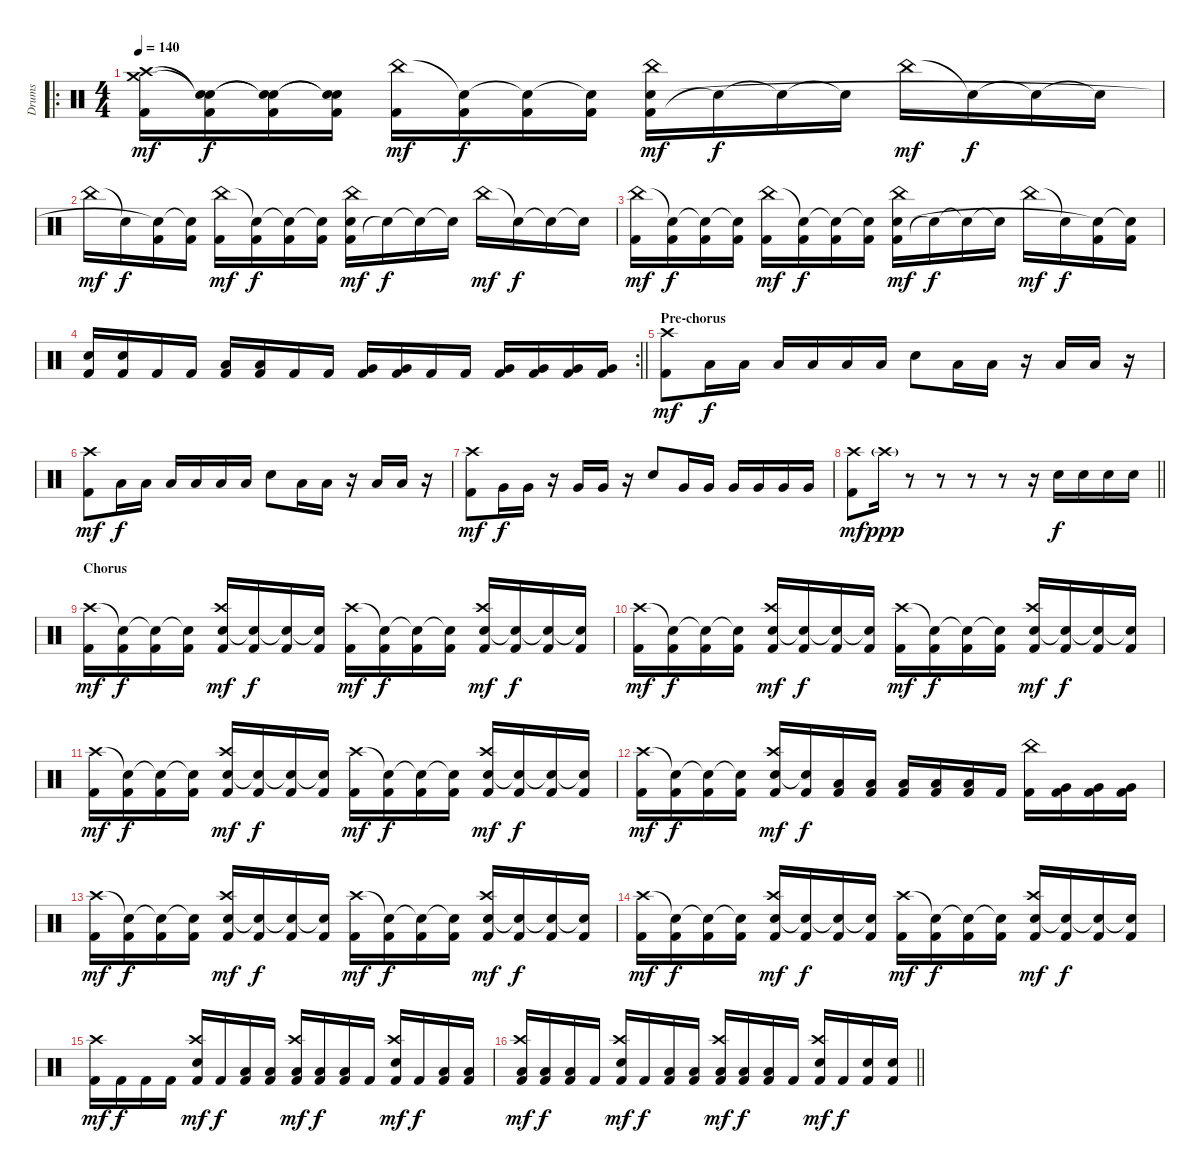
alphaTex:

\track ("Drums" "Drums") {instrument percussion}
\staff {score}
\articulation defaults
\ro
\ts (4 4)
\tempo 140
\clef neutral
\ks c
("Kick (hit) 2" "Crash high (hit)" "Crash medium (hit)").16{dy mf} ("Kick (hit) 2" "Snare (hit)"{t} "Snare (hit)"{t}).16{dy f} ("Kick (hit) 2" "Snare (hit)"{t} "Snare (hit)"{t}).16 ("Kick (hit) 2" "Snare (hit)"{t} "Snare (hit)"{t}).16 ("Kick (hit) 2" "China (hit)").16{dy mf} ("Kick (hit) 2" "Snare (hit)"{t}).16{dy f} ("Kick (hit) 2" "Snare (hit)"{t}).16 ("Kick (hit) 2" "Snare (hit)"{t}).16 ("Kick (hit) 2" "Snare (hit) 2" "China (hit)").16{dy mf} "Snare (hit)"{t}.16{dy f} "Snare (hit)"{t}.16 "Snare (hit)"{t}.16 "China (hit)".16{dy mf} "Snare (hit)"{t}.16{dy f} "Snare (hit)"{t}.16 "Snare (hit)"{t}.16 |
"China (hit)".16{dy mf} "Snare (hit)"{t}.16{dy f} ("Kick (hit) 2" "Snare (hit)"{t}).16 ("Kick (hit) 2" "Snare (hit)"{t}).16 ("Kick (hit) 2" "China (hit)").16{dy mf} ("Kick (hit) 2" "Snare (hit)"{t}).16{dy f} ("Kick (hit) 2" "Snare (hit)"{t}).16 ("Kick (hit) 2" "Snare (hit)"{t}).16 ("Kick (hit) 2" "Snare (hit) 2" "China (hit)").16{dy mf} "Snare (hit)"{t}.16{dy f} "Snare (hit)"{t}.16 "Snare (hit)"{t}.16 "China (hit)".16{dy mf} "Snare (hit)"{t}.16{dy f} "Snare (hit)"{t}.16 "Snare (hit)"{t}.16 |
("Kick (hit) 2" "China (hit)").16{dy mf} ("Kick (hit) 2" "Snare (hit)"{t}).16{dy f} ("Kick (hit) 2" "Snare (hit)"{t}).16 ("Kick (hit) 2" "Snare (hit)"{t}).16 ("Kick (hit) 2" "China (hit)").16{dy mf} ("Kick (hit) 2" "Snare (hit)"{t}).16{dy f} ("Kick (hit) 2" "Snare (hit)"{t}).16 ("Kick (hit) 2" "Snare (hit)"{t}).16 ("Kick (hit) 2" "Snare (hit) 2" "China (hit)").16{dy mf} "Snare (hit)"{t}.16{dy f} "Snare (hit)"{t}.16 "Snare (hit)"{t}.16 "China (hit)".16{dy mf} "Snare (hit)"{t}.16{dy f} ("Kick (hit) 2" "Snare (hit)"{t}).16 ("Kick (hit) 2" "Snare (hit)"{t}).16 |
\rc 2
\barLineRight lightlight
("Kick (hit) 2" "Snare (hit) 2").16 ("Kick (hit) 2" "Snare (hit) 2").16 "Kick (hit) 2".16 "Kick (hit) 2".16 ("Kick (hit) 2" "Low Tom (hit)").16 ("Kick (hit) 2" "Low Tom (hit)").16 "Kick (hit) 2".16 "Kick (hit) 2".16 ("Kick (hit) 2" "Very Low Tom (hit)").16 ("Kick (hit) 2" "Very Low Tom (hit)").16 "Kick (hit) 2".16 "Kick (hit) 2".16 ("Kick (hit) 2" "Very Low Tom (hit)").16 ("Kick (hit) 2" "Very Low Tom (hit)").16 ("Kick (hit) 2" "Very Low Tom (hit)").16 ("Kick (hit) 2" "Very Low Tom (hit)").16 |
\section ("" "Pre-chorus")
("Kick (hit) 2" "Crash high (hit)").8{dy mf} "Low Tom (hit)".16{dy f} "Low Tom (hit)".16 "Low Tom (hit)".16 "Low Tom (hit)".16 "Low Tom (hit)".16 "Low Tom (hit)".16 "Snare (hit) 2".8 "Low Tom (hit)".16 "Low Tom (hit)".16 r.16 "Low Tom (hit)".16 "Low Tom (hit)".16 r.16 |
("Kick (hit) 2" "Crash high (hit)").8{dy mf} "Low Tom (hit)".16{dy f} "Low Tom (hit)".16 "Low Tom (hit)".16 "Low Tom (hit)".16 "Low Tom (hit)".16 "Low Tom (hit)".16 "Snare (hit) 2".8 "Low Tom (hit)".16 "Low Tom (hit)".16 r.16 "Low Tom (hit)".16 "Low Tom (hit)".16 r.16 |
("Kick (hit) 2" "Crash high (hit)").8{dy mf} "Very Low Tom (hit)".16{dy f} "Very Low Tom (hit)".16 r.16 "Very Low Tom (hit)".16 "Very Low Tom (hit)".16 r.16 "Snare (hit) 2".8 "Very Low Tom (hit)".16 "Very Low Tom (hit)".16 "Very Low Tom (hit)".16 "Very Low Tom (hit)".16 "Very Low Tom (hit)".16 "Very Low Tom (hit)".16 |
\barLineRight lightlight
("Kick (hit) 2" "Crash high (hit)").8{dy mf} "Crash high (hit)"{g}.16{dy ppp} r.8 r.8 r.8 r.8 r.16 "Snare (hit) 2".16{dy f} "Snare (hit) 2".16 "Snare (hit) 2".16 "Snare (hit) 2".16 |
\section ("" "Chorus")
("Kick (hit) 2" "Crash high (hit)").16{dy mf} ("Kick (hit) 2" "Snare (hit)"{t}).16{dy f} ("Kick (hit) 2" "Snare (hit)"{t}).16 ("Kick (hit) 2" "Snare (hit)"{t}).16 ("Kick (hit) 2" "Snare (hit) 2" "Crash high (hit)").16{dy mf} ("Kick (hit) 2" "Snare (hit)"{t}).16{dy f} ("Kick (hit) 2" "Snare (hit)"{t}).16 ("Kick (hit) 2" "Snare (hit)"{t}).16 ("Kick (hit) 2" "Crash high (hit)").16{dy mf} ("Kick (hit) 2" "Snare (hit)"{t}).16{dy f} ("Kick (hit) 2" "Snare (hit)"{t}).16 ("Kick (hit) 2" "Snare (hit)"{t}).16 ("Kick (hit) 2" "Snare (hit) 2" "Crash high (hit)").16{dy mf} ("Kick (hit) 2" "Snare (hit)"{t}).16{dy f} ("Kick (hit) 2" "Snare (hit)"{t}).16 ("Kick (hit) 2" "Snare (hit)"{t}).16 |
("Kick (hit) 2" "Crash high (hit)").16{dy mf} ("Kick (hit) 2" "Snare (hit)"{t}).16{dy f} ("Kick (hit) 2" "Snare (hit)"{t}).16 ("Kick (hit) 2" "Snare (hit)"{t}).16 ("Kick (hit) 2" "Snare (hit) 2" "Crash high (hit)").16{dy mf} ("Kick (hit) 2" "Snare (hit)"{t}).16{dy f} ("Kick (hit) 2" "Snare (hit)"{t}).16 ("Kick (hit) 2" "Snare (hit)"{t}).16 ("Kick (hit) 2" "Crash high (hit)").16{dy mf} ("Kick (hit) 2" "Snare (hit)"{t}).16{dy f} ("Kick (hit) 2" "Snare (hit)"{t}).16 ("Kick (hit) 2" "Snare (hit)"{t}).16 ("Kick (hit) 2" "Snare (hit) 2" "Crash high (hit)").16{dy mf} ("Kick (hit) 2" "Snare (hit)"{t}).16{dy f} ("Kick (hit) 2" "Snare (hit)"{t}).16 ("Kick (hit) 2" "Snare (hit)"{t}).16 |
("Kick (hit) 2" "Crash high (hit)").16{dy mf} ("Kick (hit) 2" "Snare (hit)"{t}).16{dy f} ("Kick (hit) 2" "Snare (hit)"{t}).16 ("Kick (hit) 2" "Snare (hit)"{t}).16 ("Kick (hit) 2" "Snare (hit) 2" "Crash high (hit)").16{dy mf} ("Kick (hit) 2" "Snare (hit)"{t}).16{dy f} ("Kick (hit) 2" "Snare (hit)"{t}).16 ("Kick (hit) 2" "Snare (hit)"{t}).16 ("Kick (hit) 2" "Crash high (hit)").16{dy mf} ("Kick (hit) 2" "Snare (hit)"{t}).16{dy f} ("Kick (hit) 2" "Snare (hit)"{t}).16 ("Kick (hit) 2" "Snare (hit)"{t}).16 ("Kick (hit) 2" "Snare (hit) 2" "Crash high (hit)").16{dy mf} ("Kick (hit) 2" "Snare (hit)"{t}).16{dy f} ("Kick (hit) 2" "Snare (hit)"{t}).16 ("Kick (hit) 2" "Snare (hit)"{t}).16 |
("Kick (hit) 2" "Crash high (hit)").16{dy mf} ("Kick (hit) 2" "Snare (hit)"{t}).16{dy f} ("Kick (hit) 2" "Snare (hit)"{t}).16 ("Kick (hit) 2" "Snare (hit)"{t}).16 ("Kick (hit) 2" "Snare (hit) 2" "Crash high (hit)").16{dy mf} ("Kick (hit) 2" "Snare (hit)"{t}).16{dy f} ("Kick (hit) 2" "Low Tom (hit)").16 ("Kick (hit) 2" "Low Tom (hit)").16 ("Kick (hit) 2" "Low Tom (hit)").16 ("Kick (hit) 2" "Low Tom (hit)").16 ("Kick (hit) 2" "Low Tom (hit)").16 "Kick (hit) 2".16 ("Kick (hit) 2" "China (hit)").16 ("Kick (hit) 2" "Very Low Tom (hit)").16 ("Kick (hit) 2" "Very Low Tom (hit)").16 ("Kick (hit) 2" "Very Low Tom (hit)").16 |
("Kick (hit) 2" "Crash high (hit)").16{dy mf} ("Kick (hit) 2" "Snare (hit)"{t}).16{dy f} ("Kick (hit) 2" "Snare (hit)"{t}).16 ("Kick (hit) 2" "Snare (hit)"{t}).16 ("Kick (hit) 2" "Snare (hit) 2" "Crash high (hit)").16{dy mf} ("Kick (hit) 2" "Snare (hit)"{t}).16{dy f} ("Kick (hit) 2" "Snare (hit)"{t}).16 ("Kick (hit) 2" "Snare (hit)"{t}).16 ("Kick (hit) 2" "Crash high (hit)").16{dy mf} ("Kick (hit) 2" "Snare (hit)"{t}).16{dy f} ("Kick (hit) 2" "Snare (hit)"{t}).16 ("Kick (hit) 2" "Snare (hit)"{t}).16 ("Kick (hit) 2" "Snare (hit) 2" "Crash high (hit)").16{dy mf} ("Kick (hit) 2" "Snare (hit)"{t}).16{dy f} ("Kick (hit) 2" "Snare (hit)"{t}).16 ("Kick (hit) 2" "Snare (hit)"{t}).16 |
("Kick (hit) 2" "Crash high (hit)").16{dy mf} ("Kick (hit) 2" "Snare (hit)"{t}).16{dy f} ("Kick (hit) 2" "Snare (hit)"{t}).16 ("Kick (hit) 2" "Snare (hit)"{t}).16 ("Kick (hit) 2" "Snare (hit) 2" "Crash high (hit)").16{dy mf} ("Kick (hit) 2" "Snare (hit)"{t}).16{dy f} ("Kick (hit) 2" "Snare (hit)"{t}).16 ("Kick (hit) 2" "Snare (hit)"{t}).16 ("Kick (hit) 2" "Crash high (hit)").16{dy mf} ("Kick (hit) 2" "Snare (hit)"{t}).16{dy f} ("Kick (hit) 2" "Snare (hit)"{t}).16 ("Kick (hit) 2" "Snare (hit)"{t}).16 ("Kick (hit) 2" "Snare (hit) 2" "Crash high (hit)").16{dy mf} ("Kick (hit) 2" "Snare (hit)"{t}).16{dy f} ("Kick (hit) 2" "Snare (hit)"{t}).16 ("Kick (hit) 2" "Snare (hit)"{t}).16 |
("Kick (hit) 2" "Crash high (hit)").16{dy mf} "Kick (hit) 2".16{dy f} "Kick (hit) 2".16 "Kick (hit) 2".16 ("Kick (hit) 2" "Snare (hit) 2" "Crash high (hit)").16{dy mf} "Kick (hit) 2".16{dy f} ("Kick (hit) 2" "Low Tom (hit)").16 ("Kick (hit) 2" "Low Tom (hit)").16 ("Kick (hit) 2" "Low Tom (hit)" "Crash high (hit)").16{dy mf} ("Kick (hit) 2" "Low Tom (hit)").16{dy f} ("Kick (hit) 2" "Low Tom (hit)").16 "Kick (hit) 2".16 ("Kick (hit) 2" "Snare (hit) 2" "Crash high (hit)").16{dy mf} "Kick (hit) 2".16{dy f} ("Kick (hit) 2" "Low Tom (hit)").16 ("Kick (hit) 2" "Low Tom (hit)").16 |
\barLineRight lightlight
("Kick (hit) 2" "Low Tom (hit)" "Crash high (hit)").16{dy mf} ("Kick (hit) 2" "Low Tom (hit)").16{dy f} ("Kick (hit) 2" "Low Tom (hit)").16 "Kick (hit) 2".16 ("Kick (hit) 2" "Snare (hit) 2" "Crash high (hit)").16{dy mf} "Kick (hit) 2".16{dy f} ("Kick (hit) 2" "Low Tom (hit)").16 ("Kick (hit) 2" "Low Tom (hit)").16 ("Kick (hit) 2" "Low Tom (hit)" "Crash high (hit)").16{dy mf} ("Kick (hit) 2" "Low Tom (hit)").16{dy f} ("Kick (hit) 2" "Low Tom (hit)").16 "Kick (hit) 2".16 ("Kick (hit) 2" "Snare (hit) 2" "Crash high (hit)").16{dy mf} "Kick (hit) 2".16{dy f} ("Kick (hit) 2" "Snare (hit) 2").16 ("Kick (hit) 2" "Snare (hit) 2").16
